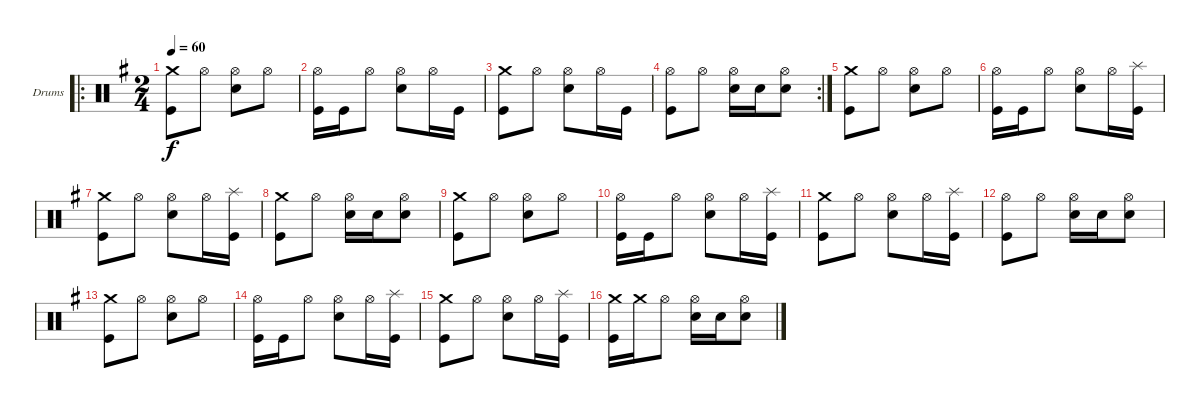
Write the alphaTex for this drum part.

\defaultSystemsLayout 4
\bracketExtendMode groupsimilarinstruments
\firstSystemTrackNameOrientation horizontal
\otherSystemsTrackNameOrientation horizontal
\track ("Drumkit" "Drums") {instrument percussion}
\staff {score}
\articulation defaults
\ro
\ts (2 4)
\tempo 60
\clef neutral
\ks eminor
("Crash medium (hit)" "Kick (hit)").8{dy f} "Hi-Hat (open)".8 ("Hi-Hat (open)" "Snare (hit) 2").8 "Hi-Hat (open)".8 |
("Hi-Hat (open)" "Kick (hit)").16 "Kick (hit)".16 "Hi-Hat (open)".8 ("Hi-Hat (open)" "Snare (hit) 2").8 "Hi-Hat (open)".16 "Kick (hit)".16 |
("Crash medium (hit)" "Kick (hit)").8 "Hi-Hat (open)".8 ("Hi-Hat (open)" "Snare (hit) 2").8 "Hi-Hat (open)".16 "Kick (hit)".16 |
\rc 2
("Hi-Hat (open)" "Kick (hit)").8 "Hi-Hat (open)".8 ("Hi-Hat (open)" "Snare (hit) 2").16 "Snare (hit) 2".16 ("Hi-Hat (open)" "Snare (hit) 2").8 |
("Crash medium (hit)" "Kick (hit)").8 "Hi-Hat (open)".8 ("Hi-Hat (open)" "Snare (hit) 2").8 "Hi-Hat (open)".8 |
("Hi-Hat (open)" "Kick (hit)").16 "Kick (hit)".16 "Hi-Hat (open)".8 ("Hi-Hat (open)" "Snare (hit) 2").8 "Hi-Hat (open)".16 ("Splash (hit)" "Kick (hit)").16 |
("Crash medium (hit)" "Kick (hit)").8 "Hi-Hat (open)".8 ("Hi-Hat (open)" "Snare (hit) 2").8 "Hi-Hat (open)".16 ("Splash (hit)" "Kick (hit)").16 |
("Crash medium (hit)" "Kick (hit)").8 "Hi-Hat (open)".8 ("Hi-Hat (open)" "Snare (hit) 2").16 "Snare (hit) 2".16 ("Hi-Hat (open)" "Snare (hit) 2").8 |
("Crash medium (hit)" "Kick (hit)").8 "Hi-Hat (open)".8 ("Hi-Hat (open)" "Snare (hit) 2").8 "Hi-Hat (open)".8 |
("Hi-Hat (open)" "Kick (hit)").16 "Kick (hit)".16 "Hi-Hat (open)".8 ("Hi-Hat (open)" "Snare (hit) 2").8 "Hi-Hat (open)".16 ("Splash (hit)" "Kick (hit)").16 |
("Crash medium (hit)" "Kick (hit)").8 "Hi-Hat (open)".8 ("Hi-Hat (open)" "Snare (hit) 2").8 "Hi-Hat (open)".16 ("Splash (hit)" "Kick (hit)").16 |
("Hi-Hat (open)" "Kick (hit)").8 "Hi-Hat (open)".8 ("Hi-Hat (open)" "Snare (hit) 2").16 "Snare (hit) 2".16 ("Hi-Hat (open)" "Snare (hit) 2").8 |
("Crash medium (hit)" "Kick (hit)").8 "Hi-Hat (open)".8 ("Hi-Hat (open)" "Snare (hit) 2").8 "Hi-Hat (open)".8 |
("Hi-Hat (open)" "Kick (hit)").16 "Kick (hit)".16 "Hi-Hat (open)".8 ("Hi-Hat (open)" "Snare (hit) 2").8 "Hi-Hat (open)".16 ("Splash (hit)" "Kick (hit)").16 |
("Crash medium (hit)" "Kick (hit)").8 "Hi-Hat (open)".8 ("Hi-Hat (open)" "Snare (hit) 2").8 "Hi-Hat (open)".16 ("Splash (hit)" "Kick (hit)").16 |
("Crash medium (hit)" "Kick (hit)").16 "Crash medium (hit)".16 "Hi-Hat (open)".8 ("Hi-Hat (open)" "Snare (hit) 2").16 "Snare (hit) 2".16 ("Hi-Hat (open)" "Snare (hit) 2").8
